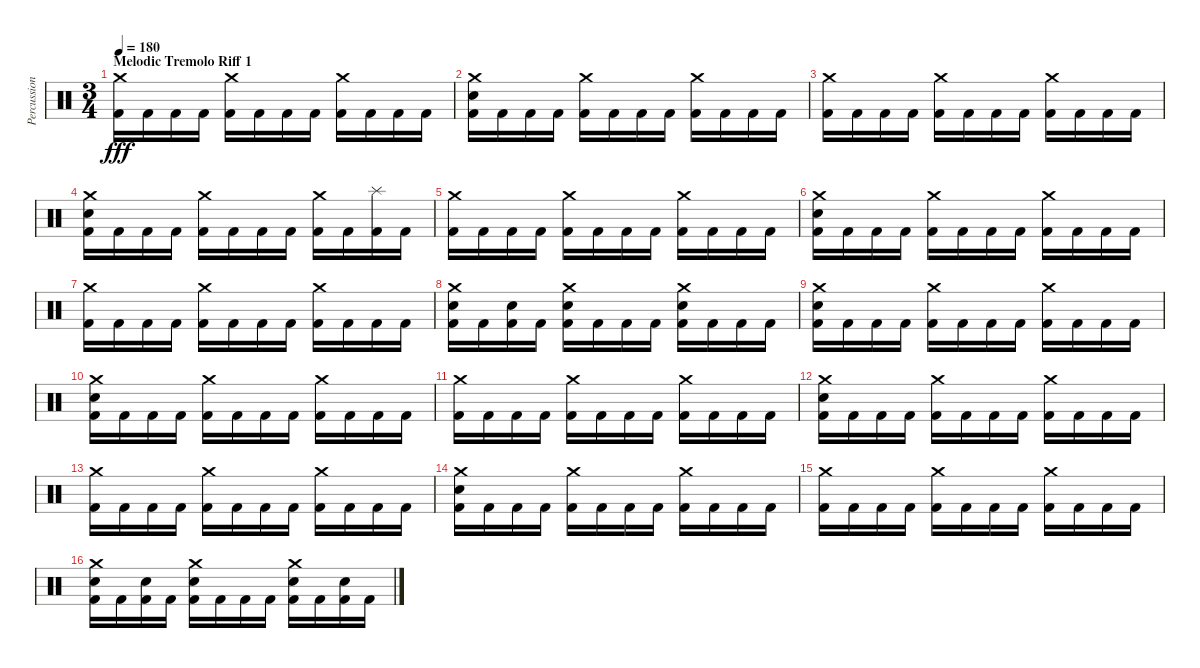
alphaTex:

\track ("Percussion" "Percussion") {instrument percussion}
\staff {score}
\articulation defaults
\ts (3 4)
\section ("" "Melodic Tremolo Riff 1")
\tempo 180
\clef neutral
\ks c
("Crash medium (hit)" "Kick (hit) 2").16{dy fff} "Kick (hit) 2".16 "Kick (hit) 2".16 "Kick (hit) 2".16 ("Crash medium (hit)" "Kick (hit) 2").16 "Kick (hit) 2".16 "Kick (hit) 2".16 "Kick (hit) 2".16 ("Crash medium (hit)" "Kick (hit) 2").16 "Kick (hit) 2".16 "Kick (hit) 2".16 "Kick (hit) 2".16 |
("Crash medium (hit)" "Electric Snare (hit)" "Kick (hit) 2").16 "Kick (hit) 2".16 "Kick (hit) 2".16 "Kick (hit) 2".16 ("Crash medium (hit)" "Kick (hit) 2").16 "Kick (hit) 2".16 "Kick (hit) 2".16 "Kick (hit) 2".16 ("Crash medium (hit)" "Kick (hit) 2").16 "Kick (hit) 2".16 "Kick (hit) 2".16 "Kick (hit) 2".16 |
("Crash medium (hit)" "Kick (hit) 2").16 "Kick (hit) 2".16 "Kick (hit) 2".16 "Kick (hit) 2".16 ("Crash medium (hit)" "Kick (hit) 2").16 "Kick (hit) 2".16 "Kick (hit) 2".16 "Kick (hit) 2".16 ("Crash medium (hit)" "Kick (hit) 2").16 "Kick (hit) 2".16 "Kick (hit) 2".16 "Kick (hit) 2".16 |
("Crash medium (hit)" "Electric Snare (hit)" "Kick (hit) 2").16 "Kick (hit) 2".16 "Kick (hit) 2".16 "Kick (hit) 2".16 ("Crash medium (hit)" "Kick (hit) 2").16 "Kick (hit) 2".16 "Kick (hit) 2".16 "Kick (hit) 2".16 ("Crash medium (hit)" "Kick (hit) 2").16 "Kick (hit) 2".16 ("Splash (hit)" "Kick (hit) 2").16 "Kick (hit) 2".16 |
("Crash medium (hit)" "Kick (hit) 2").16 "Kick (hit) 2".16 "Kick (hit) 2".16 "Kick (hit) 2".16 ("Crash medium (hit)" "Kick (hit) 2").16 "Kick (hit) 2".16 "Kick (hit) 2".16 "Kick (hit) 2".16 ("Crash medium (hit)" "Kick (hit) 2").16 "Kick (hit) 2".16 "Kick (hit) 2".16 "Kick (hit) 2".16 |
("Crash medium (hit)" "Electric Snare (hit)" "Kick (hit) 2").16 "Kick (hit) 2".16 "Kick (hit) 2".16 "Kick (hit) 2".16 ("Crash medium (hit)" "Kick (hit) 2").16 "Kick (hit) 2".16 "Kick (hit) 2".16 "Kick (hit) 2".16 ("Crash medium (hit)" "Kick (hit) 2").16 "Kick (hit) 2".16 "Kick (hit) 2".16 "Kick (hit) 2".16 |
("Crash medium (hit)" "Kick (hit) 2").16 "Kick (hit) 2".16 "Kick (hit) 2".16 "Kick (hit) 2".16 ("Crash medium (hit)" "Kick (hit) 2").16 "Kick (hit) 2".16 "Kick (hit) 2".16 "Kick (hit) 2".16 ("Crash medium (hit)" "Kick (hit) 2").16 "Kick (hit) 2".16 "Kick (hit) 2".16 "Kick (hit) 2".16 |
("Crash medium (hit)" "Electric Snare (hit)" "Kick (hit) 2").16 "Kick (hit) 2".16 ("Electric Snare (hit)" "Kick (hit) 2").16 "Kick (hit) 2".16 ("Crash medium (hit)" "Electric Snare (hit)" "Kick (hit) 2").16 "Kick (hit) 2".16 "Kick (hit) 2".16 "Kick (hit) 2".16 ("Crash medium (hit)" "Electric Snare (hit)" "Kick (hit) 2").16 "Kick (hit) 2".16 "Kick (hit) 2".16 "Kick (hit) 2".16 |
("Crash medium (hit)" "Electric Snare (hit)" "Kick (hit) 2").16 "Kick (hit) 2".16 "Kick (hit) 2".16 "Kick (hit) 2".16 ("Crash medium (hit)" "Kick (hit) 2").16 "Kick (hit) 2".16 "Kick (hit) 2".16 "Kick (hit) 2".16 ("Crash medium (hit)" "Kick (hit) 2").16 "Kick (hit) 2".16 "Kick (hit) 2".16 "Kick (hit) 2".16 |
("Crash medium (hit)" "Electric Snare (hit)" "Kick (hit) 2").16 "Kick (hit) 2".16 "Kick (hit) 2".16 "Kick (hit) 2".16 ("Crash medium (hit)" "Kick (hit) 2").16 "Kick (hit) 2".16 "Kick (hit) 2".16 "Kick (hit) 2".16 ("Crash medium (hit)" "Kick (hit) 2").16 "Kick (hit) 2".16 "Kick (hit) 2".16 "Kick (hit) 2".16 |
("Crash medium (hit)" "Kick (hit) 2").16 "Kick (hit) 2".16 "Kick (hit) 2".16 "Kick (hit) 2".16 ("Crash medium (hit)" "Kick (hit) 2").16 "Kick (hit) 2".16 "Kick (hit) 2".16 "Kick (hit) 2".16 ("Crash medium (hit)" "Kick (hit) 2").16 "Kick (hit) 2".16 "Kick (hit) 2".16 "Kick (hit) 2".16 |
("Crash medium (hit)" "Electric Snare (hit)" "Kick (hit) 2").16 "Kick (hit) 2".16 "Kick (hit) 2".16 "Kick (hit) 2".16 ("Crash medium (hit)" "Kick (hit) 2").16 "Kick (hit) 2".16 "Kick (hit) 2".16 "Kick (hit) 2".16 ("Crash medium (hit)" "Kick (hit) 2").16 "Kick (hit) 2".16 "Kick (hit) 2".16 "Kick (hit) 2".16 |
("Crash medium (hit)" "Kick (hit) 2").16 "Kick (hit) 2".16 "Kick (hit) 2".16 "Kick (hit) 2".16 ("Crash medium (hit)" "Kick (hit) 2").16 "Kick (hit) 2".16 "Kick (hit) 2".16 "Kick (hit) 2".16 ("Crash medium (hit)" "Kick (hit) 2").16 "Kick (hit) 2".16 "Kick (hit) 2".16 "Kick (hit) 2".16 |
("Crash medium (hit)" "Electric Snare (hit)" "Kick (hit) 2").16 "Kick (hit) 2".16 "Kick (hit) 2".16 "Kick (hit) 2".16 ("Crash medium (hit)" "Kick (hit) 2").16 "Kick (hit) 2".16 "Kick (hit) 2".16 "Kick (hit) 2".16 ("Crash medium (hit)" "Kick (hit) 2").16 "Kick (hit) 2".16 "Kick (hit) 2".16 "Kick (hit) 2".16 |
("Crash medium (hit)" "Kick (hit) 2").16 "Kick (hit) 2".16 "Kick (hit) 2".16 "Kick (hit) 2".16 ("Crash medium (hit)" "Kick (hit) 2").16 "Kick (hit) 2".16 "Kick (hit) 2".16 "Kick (hit) 2".16 ("Crash medium (hit)" "Kick (hit) 2").16 "Kick (hit) 2".16 "Kick (hit) 2".16 "Kick (hit) 2".16 |
("Crash medium (hit)" "Electric Snare (hit)" "Kick (hit) 2").16 "Kick (hit) 2".16 ("Electric Snare (hit)" "Kick (hit) 2").16 "Kick (hit) 2".16 ("Crash medium (hit)" "Electric Snare (hit)" "Kick (hit) 2").16 "Kick (hit) 2".16 "Kick (hit) 2".16 "Kick (hit) 2".16 ("Crash medium (hit)" "Electric Snare (hit)" "Kick (hit) 2").16 "Kick (hit) 2".16 ("Electric Snare (hit)" "Kick (hit) 2").16 "Kick (hit) 2".16
